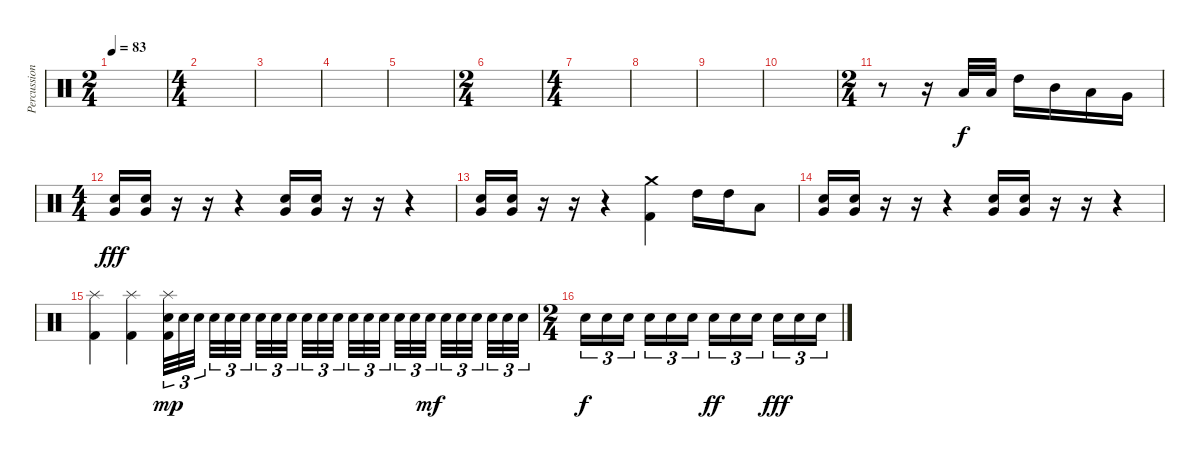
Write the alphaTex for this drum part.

\track ("Percussions" "Percussion") {instrument percussion}
\staff {score}
\articulation defaults
\ts (2 4)
\tempo 83
\clef neutral
\ks c
|
\ts (4 4)
|
|
|
|
\ts (2 4)
|
\ts (4 4)
|
|
|
|
\ts (2 4)
r.8 r.16 "Low Tom (hit)".32 "Low Tom (hit)".32 "High Tom (hit)".16 "Mid Tom (hit)".16 "Low Tom (hit)".16 "Very Low Tom (hit)".16 |
\ts (4 4)
("Very Low Tom (hit)" "Electric Snare (hit)").16{dy fff} ("Very Low Tom (hit)" "Electric Snare (hit)").16 r.16 r.16 r.4 ("Very Low Tom (hit)" "Electric Snare (hit)").16 ("Very Low Tom (hit)" "Electric Snare (hit)").16 r.16 r.16 r.4 |
("Very Low Tom (hit)" "Electric Snare (hit)").16 ("Very Low Tom (hit)" "Electric Snare (hit)").16 r.16 r.16 r.4 ("Crash medium (hit)" "Kick (hit) 2").4 "High Tom (hit)".16 "High Tom (hit)".16 "Low Tom (hit)".8 |
("Very Low Tom (hit)" "Electric Snare (hit)").16 ("Very Low Tom (hit)" "Electric Snare (hit)").16 r.16 r.16 r.4 ("Very Low Tom (hit)" "Electric Snare (hit)").16 ("Very Low Tom (hit)" "Electric Snare (hit)").16 r.16 r.16 r.4 |
("Splash (hit)" "Kick (hit) 2").4 ("Splash (hit)" "Kick (hit) 2").4 ("Splash (hit)" "Electric Snare (hit)" "Kick (hit) 2").32{tu (3 2) dy mp} "Electric Snare (hit)".32{tu (3 2)} "Electric Snare (hit)".32{tu (3 2)} "Electric Snare (hit)".32{tu (3 2)} "Electric Snare (hit)".32{tu (3 2)} "Electric Snare (hit)".32{tu (3 2)} "Electric Snare (hit)".32{tu (3 2)} "Electric Snare (hit)".32{tu (3 2)} "Electric Snare (hit)".32{tu (3 2)} "Electric Snare (hit)".32{tu (3 2)} "Electric Snare (hit)".32{tu (3 2)} "Electric Snare (hit)".32{tu (3 2)} "Electric Snare (hit)".32{tu (3 2)} "Electric Snare (hit)".32{tu (3 2)} "Electric Snare (hit)".32{tu (3 2)} "Electric Snare (hit)".32{tu (3 2)} "Electric Snare (hit)".32{tu (3 2)} "Electric Snare (hit)".32{tu (3 2) dy mf} "Electric Snare (hit)".32{tu (3 2)} "Electric Snare (hit)".32{tu (3 2)} "Electric Snare (hit)".32{tu (3 2)} "Electric Snare (hit)".32{tu (3 2)} "Electric Snare (hit)".32{tu (3 2)} "Electric Snare (hit)".32{tu (3 2)} |
\ts (2 4)
"Electric Snare (hit)".16{tu (3 2) dy f} "Electric Snare (hit)".16{tu (3 2)} "Electric Snare (hit)".16{tu (3 2)} "Electric Snare (hit)".16{tu (3 2)} "Electric Snare (hit)".16{tu (3 2)} "Electric Snare (hit)".16{tu (3 2)} "Electric Snare (hit)".16{tu (3 2) dy ff} "Electric Snare (hit)".16{tu (3 2)} "Electric Snare (hit)".16{tu (3 2)} "Electric Snare (hit)".16{tu (3 2) dy fff} "Electric Snare (hit)".16{tu (3 2)} "Electric Snare (hit)".16{tu (3 2)}
